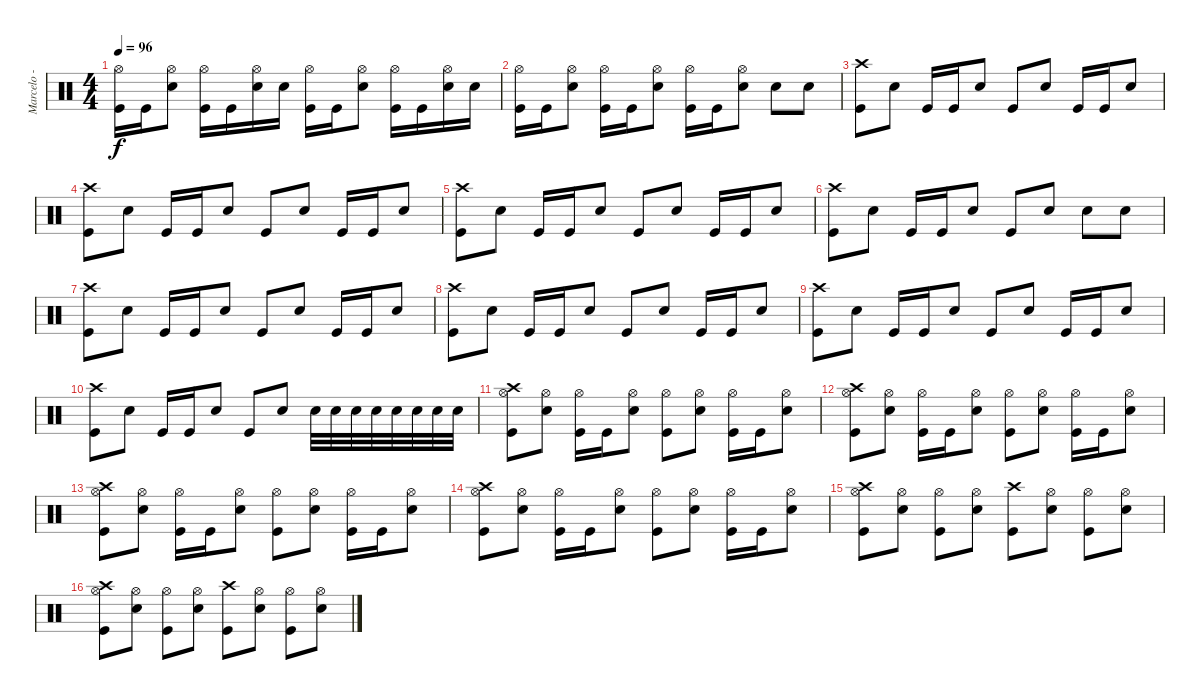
\track ("Marcelo - Percusión" "Marcelo - ") {instrument percussion}
\staff {score}
\articulation defaults
\ts (4 4)
\tempo 96
\clef neutral
\ks c
("Hi-Hat (open)" "Kick (hit)").16{dy f} "Kick (hit)".16 ("Hi-Hat (open)" "Electric Snare (hit)").8 ("Hi-Hat (open)" "Kick (hit)").16 "Kick (hit)".16 ("Hi-Hat (open)" "Electric Snare (hit)").16 "Electric Snare (hit)".16 ("Hi-Hat (open)" "Kick (hit)").16 "Kick (hit)".16 ("Hi-Hat (open)" "Electric Snare (hit)").8 ("Hi-Hat (open)" "Kick (hit)").16 "Kick (hit)".16 ("Hi-Hat (open)" "Electric Snare (hit)").16 "Electric Snare (hit)".16 |
("Hi-Hat (open)" "Kick (hit)").16 "Kick (hit)".16 ("Hi-Hat (open)" "Electric Snare (hit)").8 ("Hi-Hat (open)" "Kick (hit)").16 "Kick (hit)".16 ("Hi-Hat (open)" "Electric Snare (hit)").8 ("Hi-Hat (open)" "Kick (hit)").16 "Kick (hit)".16 ("Hi-Hat (open)" "Electric Snare (hit)").8 "Electric Snare (hit)".8 "Electric Snare (hit)".8 |
("Crash high (hit)" "Kick (hit)").8 "Electric Snare (hit)".8 "Kick (hit)".16 "Kick (hit)".16 "Electric Snare (hit)".8 "Kick (hit)".8 "Electric Snare (hit)".8 "Kick (hit)".16 "Kick (hit)".16 "Electric Snare (hit)".8 |
("Crash high (hit)" "Kick (hit)").8 "Electric Snare (hit)".8 "Kick (hit)".16 "Kick (hit)".16 "Electric Snare (hit)".8 "Kick (hit)".8 "Electric Snare (hit)".8 "Kick (hit)".16 "Kick (hit)".16 "Electric Snare (hit)".8 |
("Crash high (hit)" "Kick (hit)").8 "Electric Snare (hit)".8 "Kick (hit)".16 "Kick (hit)".16 "Electric Snare (hit)".8 "Kick (hit)".8 "Electric Snare (hit)".8 "Kick (hit)".16 "Kick (hit)".16 "Electric Snare (hit)".8 |
("Crash high (hit)" "Kick (hit)").8 "Electric Snare (hit)".8 "Kick (hit)".16 "Kick (hit)".16 "Electric Snare (hit)".8 "Kick (hit)".8 "Electric Snare (hit)".8 "Electric Snare (hit)".8 "Electric Snare (hit)".8 |
("Crash high (hit)" "Kick (hit)").8 "Electric Snare (hit)".8 "Kick (hit)".16 "Kick (hit)".16 "Electric Snare (hit)".8 "Kick (hit)".8 "Electric Snare (hit)".8 "Kick (hit)".16 "Kick (hit)".16 "Electric Snare (hit)".8 |
("Crash high (hit)" "Kick (hit)").8 "Electric Snare (hit)".8 "Kick (hit)".16 "Kick (hit)".16 "Electric Snare (hit)".8 "Kick (hit)".8 "Electric Snare (hit)".8 "Kick (hit)".16 "Kick (hit)".16 "Electric Snare (hit)".8 |
("Crash high (hit)" "Kick (hit)").8 "Electric Snare (hit)".8 "Kick (hit)".16 "Kick (hit)".16 "Electric Snare (hit)".8 "Kick (hit)".8 "Electric Snare (hit)".8 "Kick (hit)".16 "Kick (hit)".16 "Electric Snare (hit)".8 |
("Crash high (hit)" "Kick (hit)").8 "Electric Snare (hit)".8 "Kick (hit)".16 "Kick (hit)".16 "Electric Snare (hit)".8 "Kick (hit)".8 "Electric Snare (hit)".8 "Electric Snare (hit)".32 "Electric Snare (hit)".32 "Electric Snare (hit)".32 "Electric Snare (hit)".32 "Electric Snare (hit)".32 "Electric Snare (hit)".32 "Electric Snare (hit)".32 "Electric Snare (hit)".32 |
("Crash high (hit)" "Hi-Hat (open)" "Kick (hit)").8 ("Hi-Hat (open)" "Electric Snare (hit)").8 ("Hi-Hat (open)" "Kick (hit)").16 "Kick (hit)".16 ("Hi-Hat (open)" "Electric Snare (hit)").8 ("Hi-Hat (open)" "Kick (hit)").8 ("Hi-Hat (open)" "Electric Snare (hit)").8 ("Hi-Hat (open)" "Kick (hit)").16 "Kick (hit)".16 ("Hi-Hat (open)" "Electric Snare (hit)").8 |
("Crash high (hit)" "Hi-Hat (open)" "Kick (hit)").8 ("Hi-Hat (open)" "Electric Snare (hit)").8 ("Hi-Hat (open)" "Kick (hit)").16 "Kick (hit)".16 ("Hi-Hat (open)" "Electric Snare (hit)").8 ("Hi-Hat (open)" "Kick (hit)").8 ("Hi-Hat (open)" "Electric Snare (hit)").8 ("Hi-Hat (open)" "Kick (hit)").16 "Kick (hit)".16 ("Hi-Hat (open)" "Electric Snare (hit)").8 |
("Crash high (hit)" "Hi-Hat (open)" "Kick (hit)").8 ("Hi-Hat (open)" "Electric Snare (hit)").8 ("Hi-Hat (open)" "Kick (hit)").16 "Kick (hit)".16 ("Hi-Hat (open)" "Electric Snare (hit)").8 ("Hi-Hat (open)" "Kick (hit)").8 ("Hi-Hat (open)" "Electric Snare (hit)").8 ("Hi-Hat (open)" "Kick (hit)").16 "Kick (hit)".16 ("Hi-Hat (open)" "Electric Snare (hit)").8 |
("Crash high (hit)" "Hi-Hat (open)" "Kick (hit)").8 ("Hi-Hat (open)" "Electric Snare (hit)").8 ("Hi-Hat (open)" "Kick (hit)").16 "Kick (hit)".16 ("Hi-Hat (open)" "Electric Snare (hit)").8 ("Hi-Hat (open)" "Kick (hit)").8 ("Hi-Hat (open)" "Electric Snare (hit)").8 ("Hi-Hat (open)" "Kick (hit)").16 "Kick (hit)".16 ("Hi-Hat (open)" "Electric Snare (hit)").8 |
("Crash high (hit)" "Hi-Hat (open)" "Kick (hit)").8 ("Hi-Hat (open)" "Electric Snare (hit)").8 ("Hi-Hat (open)" "Kick (hit)").8 ("Hi-Hat (open)" "Electric Snare (hit)").8 ("Crash high (hit)" "Kick (hit)").8 ("Hi-Hat (open)" "Electric Snare (hit)").8 ("Hi-Hat (open)" "Kick (hit)").8 ("Hi-Hat (open)" "Electric Snare (hit)").8 |
("Crash high (hit)" "Hi-Hat (open)" "Kick (hit)").8 ("Hi-Hat (open)" "Electric Snare (hit)").8 ("Hi-Hat (open)" "Kick (hit)").8 ("Hi-Hat (open)" "Electric Snare (hit)").8 ("Crash high (hit)" "Kick (hit)").8 ("Hi-Hat (open)" "Electric Snare (hit)").8 ("Hi-Hat (open)" "Kick (hit)").8 ("Hi-Hat (open)" "Electric Snare (hit)").8
